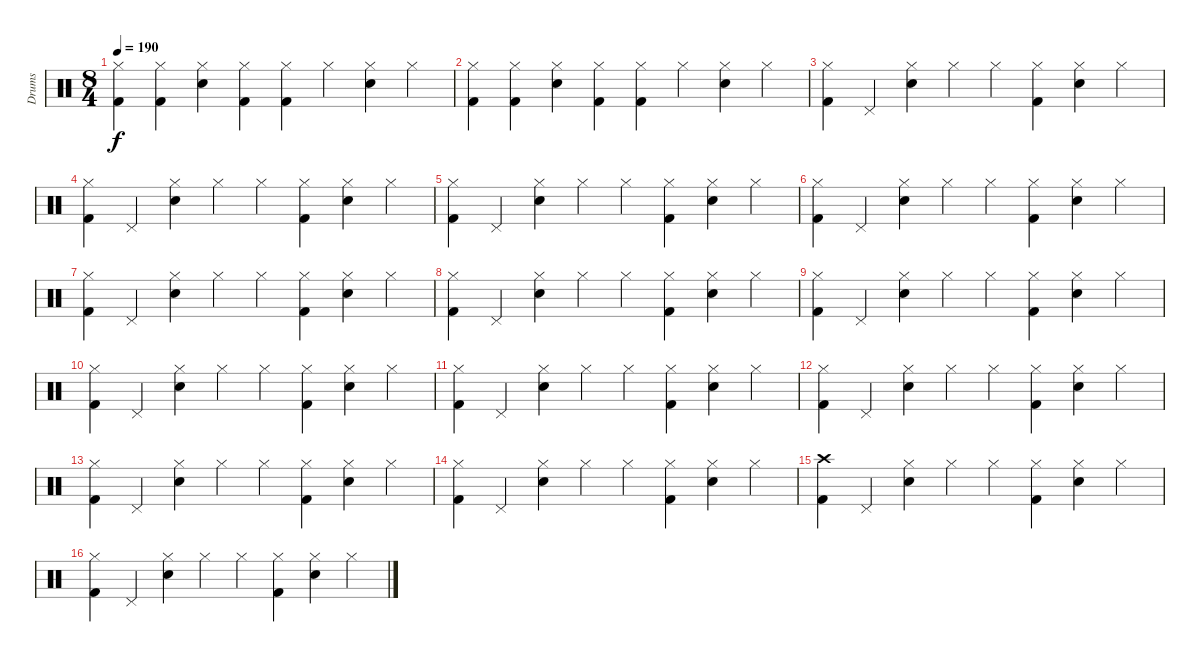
\track ("Drums" "Drums") {instrument percussion}
\staff {score}
\articulation defaults
\ts (8 4)
\tempo 190
\clef neutral
\ks c
("Hi-Hat (closed)" "Kick (hit) 2").4{dy f} ("Hi-Hat (closed)" "Kick (hit) 2").4 ("Hi-Hat (closed)" "Snare (hit) 2").4 ("Hi-Hat (closed)" "Kick (hit) 2").4 ("Hi-Hat (closed)" "Kick (hit) 2").4 "Hi-Hat (closed)".4 ("Hi-Hat (closed)" "Snare (hit) 2").4 "Hi-Hat (closed)".4 |
("Hi-Hat (closed)" "Kick (hit) 2").4 ("Hi-Hat (closed)" "Kick (hit) 2").4 ("Hi-Hat (closed)" "Snare (hit) 2").4 ("Hi-Hat (closed)" "Kick (hit) 2").4 ("Hi-Hat (closed)" "Kick (hit) 2").4 "Hi-Hat (closed)".4 ("Hi-Hat (closed)" "Snare (hit) 2").4 "Hi-Hat (closed)".4 |
("Hi-Hat (closed)" "Kick (hit) 2").4 "Pedal Hi-Hat (hit)".4 ("Hi-Hat (closed)" "Snare (hit) 2").4 "Hi-Hat (closed)".4 "Hi-Hat (closed)".4 ("Hi-Hat (closed)" "Kick (hit) 2").4 ("Hi-Hat (closed)" "Snare (hit) 2").4 "Hi-Hat (closed)".4 |
("Hi-Hat (closed)" "Kick (hit) 2").4 "Pedal Hi-Hat (hit)".4 ("Hi-Hat (closed)" "Snare (hit) 2").4 "Hi-Hat (closed)".4 "Hi-Hat (closed)".4 ("Hi-Hat (closed)" "Kick (hit) 2").4 ("Hi-Hat (closed)" "Snare (hit) 2").4 "Hi-Hat (closed)".4 |
("Hi-Hat (closed)" "Kick (hit) 2").4 "Pedal Hi-Hat (hit)".4 ("Hi-Hat (closed)" "Snare (hit) 2").4 "Hi-Hat (closed)".4 "Hi-Hat (closed)".4 ("Hi-Hat (closed)" "Kick (hit) 2").4 ("Hi-Hat (closed)" "Snare (hit) 2").4 "Hi-Hat (closed)".4 |
("Hi-Hat (closed)" "Kick (hit) 2").4 "Pedal Hi-Hat (hit)".4 ("Hi-Hat (closed)" "Snare (hit) 2").4 "Hi-Hat (closed)".4 "Hi-Hat (closed)".4 ("Hi-Hat (closed)" "Kick (hit) 2").4 ("Hi-Hat (closed)" "Snare (hit) 2").4 "Hi-Hat (closed)".4 |
("Hi-Hat (closed)" "Kick (hit) 2").4 "Pedal Hi-Hat (hit)".4 ("Hi-Hat (closed)" "Snare (hit) 2").4 "Hi-Hat (closed)".4 "Hi-Hat (closed)".4 ("Hi-Hat (closed)" "Kick (hit) 2").4 ("Hi-Hat (closed)" "Snare (hit) 2").4 "Hi-Hat (closed)".4 |
("Hi-Hat (closed)" "Kick (hit) 2").4 "Pedal Hi-Hat (hit)".4 ("Hi-Hat (closed)" "Snare (hit) 2").4 "Hi-Hat (closed)".4 "Hi-Hat (closed)".4 ("Hi-Hat (closed)" "Kick (hit) 2").4 ("Hi-Hat (closed)" "Snare (hit) 2").4 "Hi-Hat (closed)".4 |
("Hi-Hat (closed)" "Kick (hit) 2").4 "Pedal Hi-Hat (hit)".4 ("Hi-Hat (closed)" "Snare (hit) 2").4 "Hi-Hat (closed)".4 "Hi-Hat (closed)".4 ("Hi-Hat (closed)" "Kick (hit) 2").4 ("Hi-Hat (closed)" "Snare (hit) 2").4 "Hi-Hat (closed)".4 |
("Hi-Hat (closed)" "Kick (hit) 2").4 "Pedal Hi-Hat (hit)".4 ("Hi-Hat (closed)" "Snare (hit) 2").4 "Hi-Hat (closed)".4 "Hi-Hat (closed)".4 ("Hi-Hat (closed)" "Kick (hit) 2").4 ("Hi-Hat (closed)" "Snare (hit) 2").4 "Hi-Hat (closed)".4 |
("Hi-Hat (closed)" "Kick (hit) 2").4 "Pedal Hi-Hat (hit)".4 ("Hi-Hat (closed)" "Snare (hit) 2").4 "Hi-Hat (closed)".4 "Hi-Hat (closed)".4 ("Hi-Hat (closed)" "Kick (hit) 2").4 ("Hi-Hat (closed)" "Snare (hit) 2").4 "Hi-Hat (closed)".4 |
("Hi-Hat (closed)" "Kick (hit) 2").4 "Pedal Hi-Hat (hit)".4 ("Hi-Hat (closed)" "Snare (hit) 2").4 "Hi-Hat (closed)".4 "Hi-Hat (closed)".4 ("Hi-Hat (closed)" "Kick (hit) 2").4 ("Hi-Hat (closed)" "Snare (hit) 2").4 "Hi-Hat (closed)".4 |
("Hi-Hat (closed)" "Kick (hit) 2").4 "Pedal Hi-Hat (hit)".4 ("Hi-Hat (closed)" "Snare (hit) 2").4 "Hi-Hat (closed)".4 "Hi-Hat (closed)".4 ("Hi-Hat (closed)" "Kick (hit) 2").4 ("Hi-Hat (closed)" "Snare (hit) 2").4 "Hi-Hat (closed)".4 |
("Hi-Hat (closed)" "Kick (hit) 2").4 "Pedal Hi-Hat (hit)".4 ("Hi-Hat (closed)" "Snare (hit) 2").4 "Hi-Hat (closed)".4 "Hi-Hat (closed)".4 ("Hi-Hat (closed)" "Kick (hit) 2").4 ("Hi-Hat (closed)" "Snare (hit) 2").4 "Hi-Hat (closed)".4 |
("Crash high (hit)" "Kick (hit) 2").4 "Pedal Hi-Hat (hit)".4 ("Hi-Hat (closed)" "Snare (hit) 2").4 "Hi-Hat (closed)".4 "Hi-Hat (closed)".4 ("Hi-Hat (closed)" "Kick (hit) 2").4 ("Hi-Hat (closed)" "Snare (hit) 2").4 "Hi-Hat (closed)".4 |
("Hi-Hat (closed)" "Kick (hit) 2").4 "Pedal Hi-Hat (hit)".4 ("Hi-Hat (closed)" "Snare (hit) 2").4 "Hi-Hat (closed)".4 "Hi-Hat (closed)".4 ("Hi-Hat (closed)" "Kick (hit) 2").4 ("Hi-Hat (closed)" "Snare (hit) 2").4 "Hi-Hat (closed)".4
